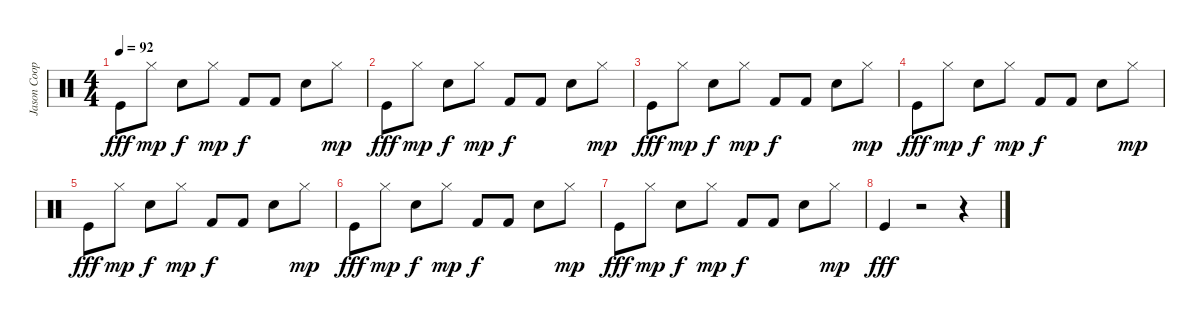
\track ("Jason Cooper " "Jason Coop") {instrument percussion}
\staff {score}
\articulation defaults
\ts (4 4)
\tempo 92
\clef neutral
\ks c "Kick (hit)".8{dy fff} "Hi-Hat (closed)".8{dy mp} "Snare (hit) 2".8{dy f} "Hi-Hat (closed)".8{dy mp} "Kick (hit) 2".8{dy f} "Kick (hit) 2".8 "Snare (hit) 2".8 "Hi-Hat (closed)".8{dy mp}
|
"Kick (hit)".8{dy fff} "Hi-Hat (closed)".8{dy mp} "Snare (hit) 2".8{dy f} "Hi-Hat (closed)".8{dy mp} "Kick (hit) 2".8{dy f} "Kick (hit) 2".8 "Snare (hit) 2".8 "Hi-Hat (closed)".8{dy mp} |
"Kick (hit)".8{dy fff} "Hi-Hat (closed)".8{dy mp} "Snare (hit) 2".8{dy f} "Hi-Hat (closed)".8{dy mp} "Kick (hit) 2".8{dy f} "Kick (hit) 2".8 "Snare (hit) 2".8 "Hi-Hat (closed)".8{dy mp} |
"Kick (hit)".8{dy fff} "Hi-Hat (closed)".8{dy mp} "Snare (hit) 2".8{dy f} "Hi-Hat (closed)".8{dy mp} "Kick (hit) 2".8{dy f} "Kick (hit) 2".8 "Snare (hit) 2".8 "Hi-Hat (closed)".8{dy mp} |
"Kick (hit)".8{dy fff} "Hi-Hat (closed)".8{dy mp} "Snare (hit) 2".8{dy f} "Hi-Hat (closed)".8{dy mp} "Kick (hit) 2".8{dy f} "Kick (hit) 2".8 "Snare (hit) 2".8 "Hi-Hat (closed)".8{dy mp} |
"Kick (hit)".8{dy fff} "Hi-Hat (closed)".8{dy mp} "Snare (hit) 2".8{dy f} "Hi-Hat (closed)".8{dy mp} "Kick (hit) 2".8{dy f} "Kick (hit) 2".8 "Snare (hit) 2".8 "Hi-Hat (closed)".8{dy mp} |
"Kick (hit)".8{dy fff} "Hi-Hat (closed)".8{dy mp} "Snare (hit) 2".8{dy f} "Hi-Hat (closed)".8{dy mp} "Kick (hit) 2".8{dy f} "Kick (hit) 2".8 "Snare (hit) 2".8 "Hi-Hat (closed)".8{dy mp} |
"Kick (hit)".4{dy fff} r.2 r.4
